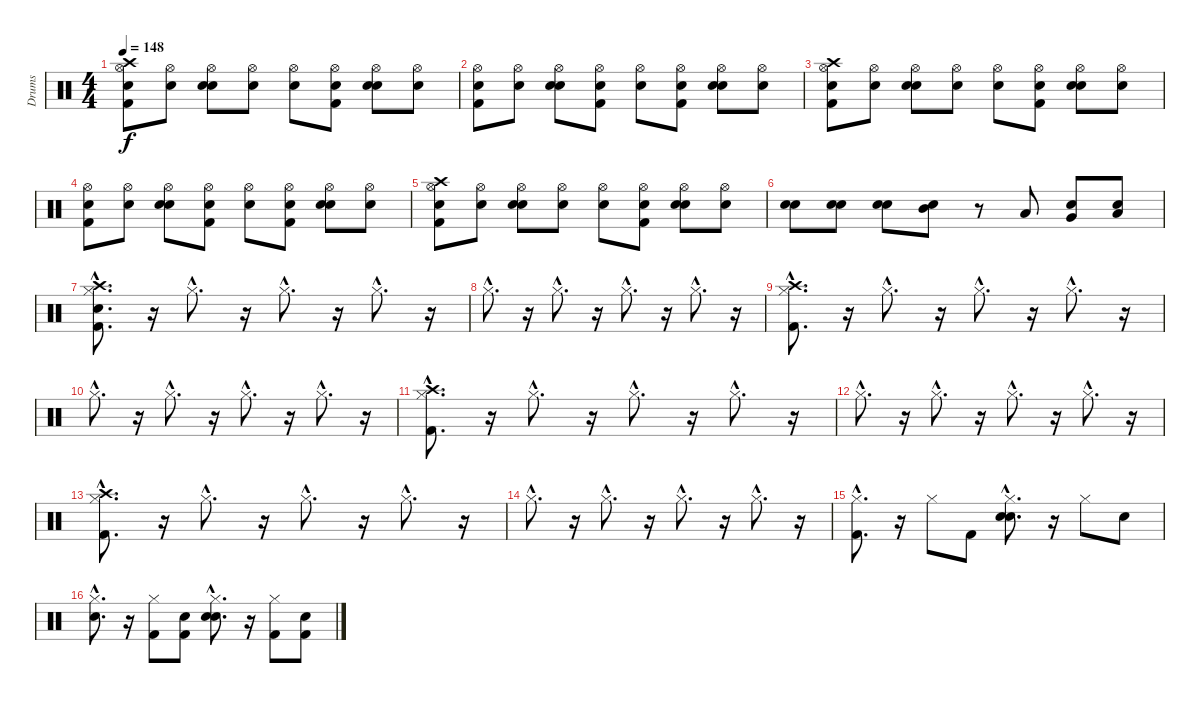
\track ("Drums" "Drums") {instrument percussion}
\staff {score}
\articulation defaults
\ts (4 4)
\tempo 148
\clef neutral
\ks c
("Snare (hit)" "Kick (hit) 2" "Hi-Hat (open)" "Crash high (hit)").8{dy f} ("Snare (hit)" "Hi-Hat (open)").8 ("Snare (hit)" "Snare (hit) 2" "Hi-Hat (open)").8 ("Snare (hit)" "Hi-Hat (open)").8 ("Snare (hit)" "Hi-Hat (open)").8 ("Snare (hit)" "Kick (hit) 2" "Hi-Hat (open)").8 ("Snare (hit)" "Snare (hit) 2" "Hi-Hat (open)").8 ("Snare (hit)" "Hi-Hat (open)").8 |
("Snare (hit)" "Kick (hit) 2" "Hi-Hat (open)").8 ("Snare (hit)" "Hi-Hat (open)").8 ("Snare (hit)" "Snare (hit) 2" "Hi-Hat (open)").8 ("Snare (hit)" "Kick (hit) 2" "Hi-Hat (open)").8 ("Snare (hit)" "Hi-Hat (open)").8 ("Snare (hit)" "Kick (hit) 2" "Hi-Hat (open)").8 ("Snare (hit)" "Snare (hit) 2" "Hi-Hat (open)").8 ("Snare (hit)" "Hi-Hat (open)").8 |
("Snare (hit)" "Kick (hit) 2" "Hi-Hat (open)" "Crash high (hit)").8 ("Snare (hit)" "Hi-Hat (open)").8 ("Snare (hit)" "Snare (hit) 2" "Hi-Hat (open)").8 ("Snare (hit)" "Hi-Hat (open)").8 ("Snare (hit)" "Hi-Hat (open)").8 ("Snare (hit)" "Kick (hit) 2" "Hi-Hat (open)").8 ("Snare (hit)" "Snare (hit) 2" "Hi-Hat (open)").8 ("Snare (hit)" "Hi-Hat (open)").8 |
("Snare (hit)" "Kick (hit) 2" "Hi-Hat (open)").8 ("Snare (hit)" "Hi-Hat (open)").8 ("Snare (hit)" "Snare (hit) 2" "Hi-Hat (open)").8 ("Snare (hit)" "Kick (hit) 2" "Hi-Hat (open)").8 ("Snare (hit)" "Hi-Hat (open)").8 ("Snare (hit)" "Kick (hit) 2" "Hi-Hat (open)").8 ("Snare (hit)" "Snare (hit) 2" "Hi-Hat (open)").8 ("Snare (hit)" "Hi-Hat (open)").8 |
("Snare (hit)" "Kick (hit) 2" "Hi-Hat (open)" "Crash high (hit)").8 ("Snare (hit)" "Hi-Hat (open)").8 ("Snare (hit)" "Snare (hit) 2" "Hi-Hat (open)").8 ("Snare (hit)" "Hi-Hat (open)").8 ("Snare (hit)" "Hi-Hat (open)").8 ("Snare (hit)" "Kick (hit) 2" "Hi-Hat (open)").8 ("Snare (hit)" "Snare (hit) 2" "Hi-Hat (open)").8 ("Snare (hit)" "Hi-Hat (open)").8 |
("Snare (hit)" "Snare (hit) 2").8 ("Snare (hit)" "Snare (hit) 2").8 ("Snare (hit)" "Snare (hit) 2").8 ("Snare (hit)" "Mid Tom (hit)").8 r.8 "Low Tom (hit)".8 ("Snare (hit)" "Very Low Tom (hit)").8 ("Snare (hit)" "Low Floor Tom (hit)").8 |
("Snare (hit)"{hac} "Kick (hit) 2"{hac} "Hi-Hat (closed)"{hac} "Crash high (hit)"{hac}).8{d} r.16 "Hi-Hat (closed)"{hac}.8{d} r.16 "Hi-Hat (closed)"{hac}.8{d} r.16 "Hi-Hat (closed)"{hac}.8{d} r.16 |
"Hi-Hat (closed)"{hac}.8{d} r.16 "Hi-Hat (closed)"{hac}.8{d} r.16 "Hi-Hat (closed)"{hac}.8{d} r.16 "Hi-Hat (closed)"{hac}.8{d} r.16 |
("Kick (hit) 2"{hac} "Hi-Hat (closed)"{hac} "Crash high (hit)"{hac}).8{d} r.16 "Hi-Hat (closed)"{hac}.8{d} r.16 "Hi-Hat (closed)"{hac}.8{d} r.16 "Hi-Hat (closed)"{hac}.8{d} r.16 |
"Hi-Hat (closed)"{hac}.8{d} r.16 "Hi-Hat (closed)"{hac}.8{d} r.16 "Hi-Hat (closed)"{hac}.8{d} r.16 "Hi-Hat (closed)"{hac}.8{d} r.16 |
("Kick (hit) 2"{hac} "Hi-Hat (closed)"{hac} "Crash high (hit)"{hac}).8{d} r.16 "Hi-Hat (closed)"{hac}.8{d} r.16 "Hi-Hat (closed)"{hac}.8{d} r.16 "Hi-Hat (closed)"{hac}.8{d} r.16 |
"Hi-Hat (closed)"{hac}.8{d} r.16 "Hi-Hat (closed)"{hac}.8{d} r.16 "Hi-Hat (closed)"{hac}.8{d} r.16 "Hi-Hat (closed)"{hac}.8{d} r.16 |
("Kick (hit) 2"{hac} "Hi-Hat (closed)"{hac} "Crash high (hit)"{hac}).8{d} r.16 "Hi-Hat (closed)"{hac}.8{d} r.16 "Hi-Hat (closed)"{hac}.8{d} r.16 "Hi-Hat (closed)"{hac}.8{d} r.16 |
"Hi-Hat (closed)"{hac}.8{d} r.16 "Hi-Hat (closed)"{hac}.8{d} r.16 "Hi-Hat (closed)"{hac}.8{d} r.16 "Hi-Hat (closed)"{hac}.8{d} r.16 |
("Kick (hit) 2"{hac} "Hi-Hat (closed)"{hac}).8{d} r.16 "Hi-Hat (closed)".8 "Kick (hit) 2".8 ("Snare (hit)"{hac} "Snare (hit) 2"{hac} "Hi-Hat (closed)"{hac}).8{d} r.16 "Hi-Hat (closed)".8 "Snare (hit) 2".8 |
("Snare (hit)"{hac} "Hi-Hat (closed)"{hac}).8{d} r.16 ("Kick (hit) 2" "Hi-Hat (closed)").8 ("Snare (hit)" "Kick (hit) 2").8 ("Snare (hit)"{hac} "Snare (hit) 2"{hac} "Hi-Hat (closed)"{hac}).8{d} r.16 ("Kick (hit) 2" "Hi-Hat (closed)").8 ("Snare (hit)" "Kick (hit) 2").8
